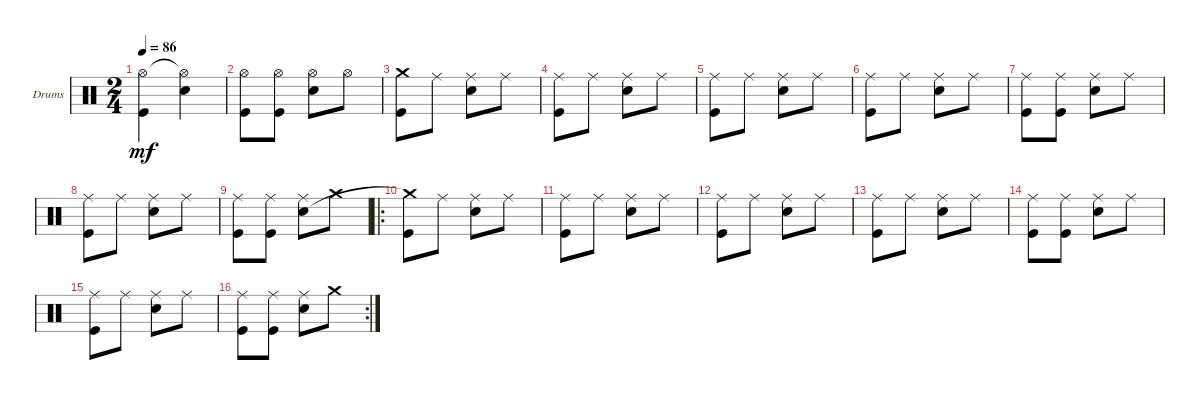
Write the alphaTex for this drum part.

\bracketExtendMode groupsimilarinstruments
\firstSystemTrackNameOrientation horizontal
\otherSystemsTrackNameOrientation horizontal
\track ("Drumkit" "Drums") {instrument percussion}
\staff {score}
\articulation defaults
\ts (2 4)
\tempo 86
\clef neutral
\scale
0.333333
\ks c
("Hi-Hat (open)"{t} "Kick (hit)").4{dy mf} ("Hi-Hat (open)"{t} "Snare (hit) 2").4 |
\scale
0.333333 ("Kick (hit)" "Hi-Hat (open)").8 ("Kick (hit)" "Hi-Hat (open)").8 ("Snare (hit) 2" "Hi-Hat (open)").8 "Hi-Hat (open)".8 |
\scale
0.333333 ("Crash medium (hit)" "Kick (hit)").8 "Ride (middle)".8 ("Ride (middle)" "Snare (hit) 2").8 "Ride (middle)".8 |
\scale
0.333333 ("Ride (middle)" "Kick (hit)").8 "Ride (middle)".8 ("Ride (middle)" "Snare (hit) 2").8 "Ride (middle)".8 |
\scale
0.333333 ("Ride (middle)" "Kick (hit)").8 "Ride (middle)".8 ("Ride (middle)" "Snare (hit) 2").8 "Ride (middle)".8 |
\scale
0.333333 ("Ride (middle)" "Kick (hit)").8 "Ride (middle)".8 ("Ride (middle)" "Snare (hit) 2").8 "Ride (middle)".8 |
\scale
0.333333 ("Ride (middle)" "Kick (hit)").8 ("Ride (middle)" "Kick (hit)").8 ("Ride (middle)" "Snare (hit) 2").8 "Ride (middle)".8 |
\scale
0.311475 ("Ride (middle)" "Kick (hit)").8 "Ride (middle)".8 ("Ride (middle)" "Snare (hit) 2").8 "Ride (middle)".8 |
\scale
0.311475 ("Ride (middle)" "Kick (hit)").8 ("Ride (middle)" "Kick (hit)").8 ("Ride (middle)" "Snare (hit) 2").8 "Crash medium (hit)".8 |
\ro
\scale
0.377049 ("Kick (hit)" "Crash medium (hit)"{t}).8 "Ride (middle)".8 ("Ride (middle)" "Snare (hit) 2").8 "Ride (middle)".8 |
\scale
0.333333 ("Ride (middle)" "Kick (hit)").8 "Ride (middle)".8 ("Ride (middle)" "Snare (hit) 2").8 "Ride (middle)".8 |
\scale
0.333333 ("Ride (middle)" "Kick (hit)").8 "Ride (middle)".8 ("Ride (middle)" "Snare (hit) 2").8 "Ride (middle)".8 |
\scale
0.333333 ("Ride (middle)" "Kick (hit)").8 "Ride (middle)".8 ("Ride (middle)" "Snare (hit) 2").8 "Ride (middle)".8 |
\scale
0.322034 ("Ride (middle)" "Kick (hit)").8 ("Ride (middle)" "Kick (hit)").8 ("Ride (middle)" "Snare (hit) 2").8 "Ride (middle)".8 |
\scale
0.322034 ("Ride (middle)" "Kick (hit)").8 "Ride (middle)".8 ("Ride (middle)" "Snare (hit) 2").8 "Ride (middle)".8 |
\rc 2
\scale
0.355932 ("Ride (middle)" "Kick (hit)").8 ("Ride (middle)" "Kick (hit)").8 ("Ride (middle)" "Snare (hit) 2").8 "Crash medium (hit)".8
